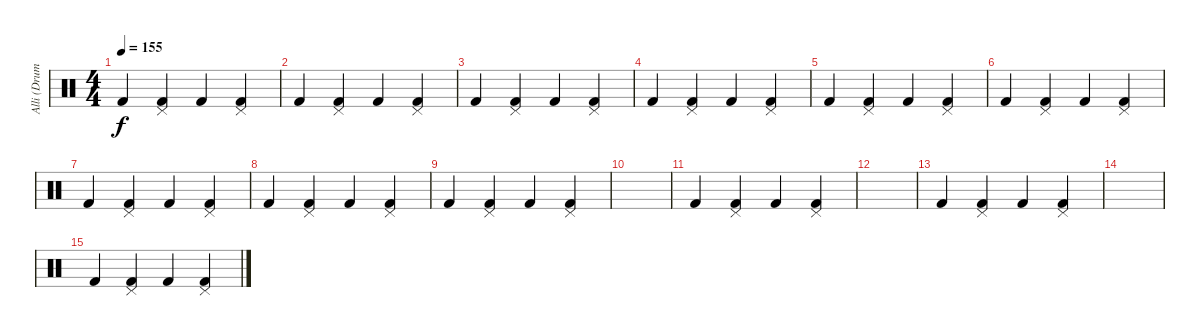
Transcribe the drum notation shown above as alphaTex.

\track ("Alli (Drums)" "Alli (Drum") {instrument percussion}
\staff {score}
\articulation defaults
\ts (4 4)
\tempo 155
\clef neutral
\ks c "Kick (hit) 2".4{dy f}
("Pedal Hi-Hat (hit)" "Kick (hit) 2").4 "Kick (hit) 2".4 ("Pedal Hi-Hat (hit)" "Kick (hit) 2").4 |
"Kick (hit) 2".4 ("Pedal Hi-Hat (hit)" "Kick (hit) 2").4 "Kick (hit) 2".4 ("Pedal Hi-Hat (hit)" "Kick (hit) 2").4 |
"Kick (hit) 2".4 ("Pedal Hi-Hat (hit)" "Kick (hit) 2").4 "Kick (hit) 2".4 ("Pedal Hi-Hat (hit)" "Kick (hit) 2").4 |
"Kick (hit) 2".4 ("Pedal Hi-Hat (hit)" "Kick (hit) 2").4 "Kick (hit) 2".4 ("Pedal Hi-Hat (hit)" "Kick (hit) 2").4 |
"Kick (hit) 2".4 ("Pedal Hi-Hat (hit)" "Kick (hit) 2").4 "Kick (hit) 2".4 ("Pedal Hi-Hat (hit)" "Kick (hit) 2").4 |
"Kick (hit) 2".4 ("Pedal Hi-Hat (hit)" "Kick (hit) 2").4 "Kick (hit) 2".4 ("Pedal Hi-Hat (hit)" "Kick (hit) 2").4 |
"Kick (hit) 2".4 ("Pedal Hi-Hat (hit)" "Kick (hit) 2").4 "Kick (hit) 2".4 ("Pedal Hi-Hat (hit)" "Kick (hit) 2").4 |
"Kick (hit) 2".4 ("Pedal Hi-Hat (hit)" "Kick (hit) 2").4 "Kick (hit) 2".4 ("Pedal Hi-Hat (hit)" "Kick (hit) 2").4 |
"Kick (hit) 2".4 ("Pedal Hi-Hat (hit)" "Kick (hit) 2").4 "Kick (hit) 2".4 ("Pedal Hi-Hat (hit)" "Kick (hit) 2").4 |
|
"Kick (hit) 2".4 ("Pedal Hi-Hat (hit)" "Kick (hit) 2").4 "Kick (hit) 2".4 ("Pedal Hi-Hat (hit)" "Kick (hit) 2").4 |
|
"Kick (hit) 2".4 ("Pedal Hi-Hat (hit)" "Kick (hit) 2").4 "Kick (hit) 2".4 ("Pedal Hi-Hat (hit)" "Kick (hit) 2").4 |
|
"Kick (hit) 2".4 ("Pedal Hi-Hat (hit)" "Kick (hit) 2").4 "Kick (hit) 2".4 ("Pedal Hi-Hat (hit)" "Kick (hit) 2").4
